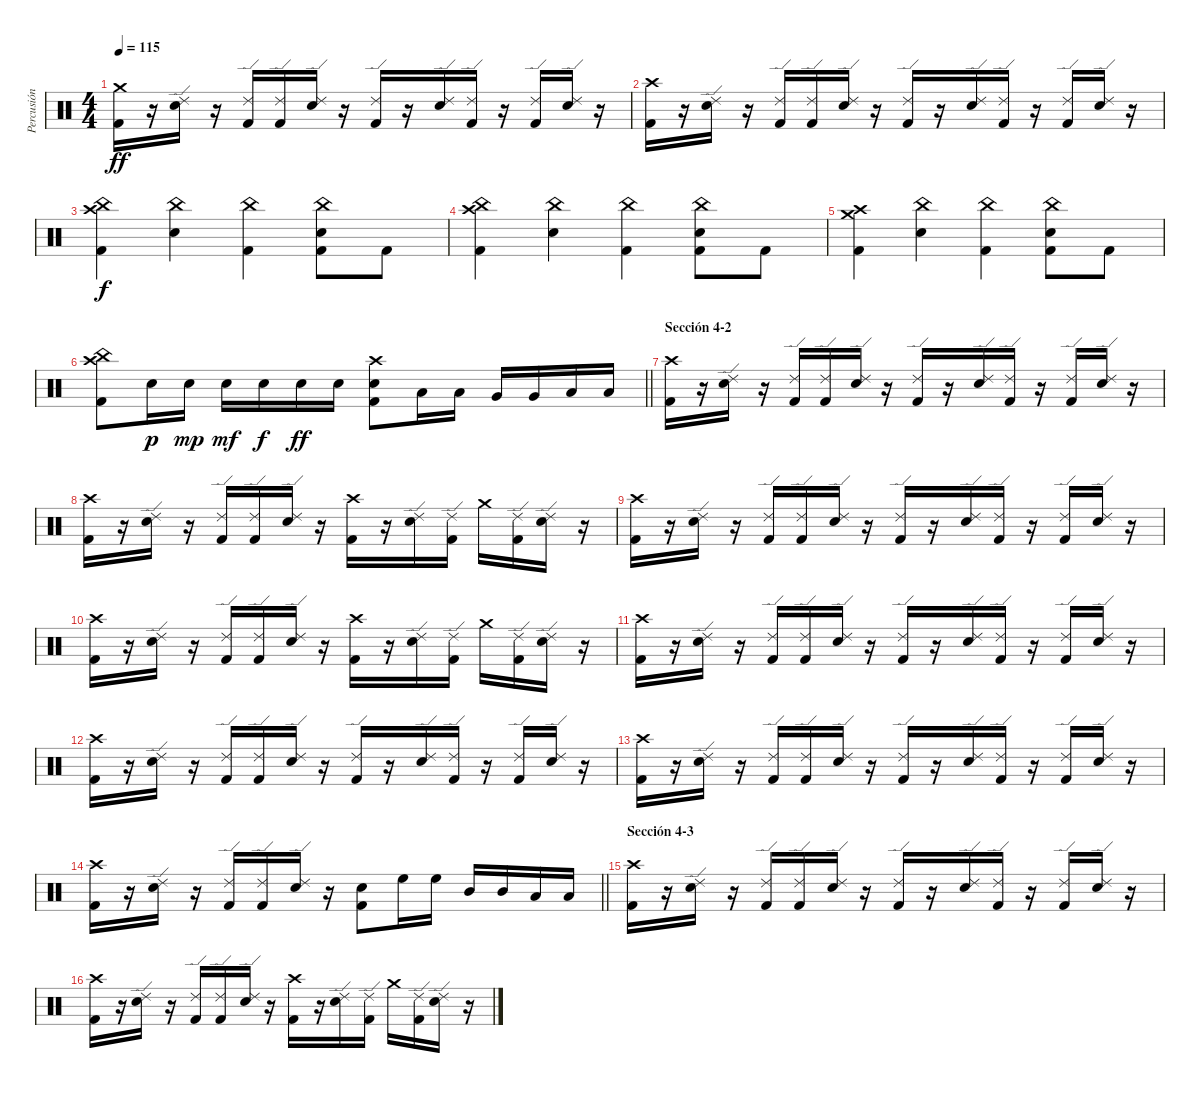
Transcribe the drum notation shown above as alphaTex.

\track ("Percusión" "Percusión") {instrument percussion}
\staff {score}
\articulation defaults
\ts (4 4)
\tempo 115
\clef neutral
\ks c
("Crash medium (hit)" "Kick (hit) 2").16{dy ff} r.16 ("Ride (edge) 2" "Snare (hit) 2").16 r.16 ("Ride (edge) 2" "Kick (hit) 2").16 ("Ride (edge) 2" "Kick (hit) 2").16 ("Ride (edge) 2" "Snare (hit) 2").16 r.16 ("Ride (edge) 2" "Kick (hit) 2").16 r.16 ("Ride (edge) 2" "Snare (hit) 2").16 ("Ride (edge) 2" "Kick (hit) 2").16 r.16 ("Ride (edge) 2" "Kick (hit) 2").16 ("Ride (edge) 2" "Snare (hit) 2").16 r.16 |
("Crash high (hit)" "Kick (hit) 2").16 r.16 ("Ride (edge) 2" "Snare (hit) 2").16 r.16 ("Ride (edge) 2" "Kick (hit) 2").16 ("Ride (edge) 2" "Kick (hit) 2").16 ("Ride (edge) 2" "Snare (hit) 2").16 r.16 ("Ride (edge) 2" "Kick (hit) 2").16 r.16 ("Ride (edge) 2" "Snare (hit) 2").16 ("Ride (edge) 2" "Kick (hit) 2").16 r.16 ("Ride (edge) 2" "Kick (hit) 2").16 ("Ride (edge) 2" "Snare (hit) 2").16 r.16 |
("China (hit)" "Crash high (hit)" "Kick (hit) 2").4{dy f} ("China (hit)" "Snare (hit) 2").4 ("China (hit)" "Kick (hit) 2").4 ("China (hit)" "Snare (hit) 2" "Kick (hit) 2").8 "Kick (hit) 2".8 |
("China (hit)" "Crash high (hit)" "Kick (hit) 2").4 ("China (hit)" "Snare (hit) 2").4 ("China (hit)" "Kick (hit) 2").4 ("China (hit)" "Snare (hit) 2" "Kick (hit) 2").8 "Kick (hit) 2".8 |
("Crash medium (hit)" "Crash high (hit)" "Kick (hit) 2").4 ("China (hit)" "Snare (hit) 2").4 ("China (hit)" "Kick (hit) 2").4 ("China (hit)" "Snare (hit) 2" "Kick (hit) 2").8 "Kick (hit) 2".8 |
\barLineRight lightlight
("China (hit)" "Crash high (hit)" "Kick (hit) 2").8 "Snare (hit) 2".16{dy p} "Snare (hit) 2".16{dy mp} "Snare (hit) 2".16{dy mf} "Snare (hit) 2".16{dy f} "Snare (hit) 2".16{dy ff} "Snare (hit) 2".16 ("Crash high (hit)" "Snare (hit) 2" "Kick (hit) 2").8 "Low Tom (hit)".16 "Low Tom (hit)".16 "Very Low Tom (hit)".16 "Very Low Tom (hit)".16 "Low Floor Tom (hit)".16 "Low Floor Tom (hit)".16 |
\section ("" "Sección 4-2")
("Crash high (hit)" "Kick (hit) 2").16 r.16 ("Ride (edge) 2" "Snare (hit) 2").16 r.16 ("Ride (edge) 2" "Kick (hit) 2").16 ("Ride (edge) 2" "Kick (hit) 2").16 ("Ride (edge) 2" "Snare (hit) 2").16 r.16 ("Ride (edge) 2" "Kick (hit) 2").16 r.16 ("Ride (edge) 2" "Snare (hit) 2").16 ("Ride (edge) 2" "Kick (hit) 2").16 r.16 ("Ride (edge) 2" "Kick (hit) 2").16 ("Ride (edge) 2" "Snare (hit) 2").16 r.16 |
("Crash high (hit)" "Kick (hit) 2").16 r.16 ("Ride (edge) 2" "Snare (hit) 2").16 r.16 ("Ride (edge) 2" "Kick (hit) 2").16 ("Ride (edge) 2" "Kick (hit) 2").16 ("Ride (edge) 2" "Snare (hit) 2").16 r.16 ("Crash high (hit)" "Kick (hit) 2").16 r.16 ("Ride (edge) 2" "Snare (hit) 2").16 ("Ride (edge) 2" "Kick (hit) 2").16 "Crash medium (hit)".16 ("Ride (edge) 2" "Kick (hit) 2").16 ("Ride (edge) 2" "Snare (hit) 2").16 r.16 |
("Crash high (hit)" "Kick (hit) 2").16 r.16 ("Ride (edge) 2" "Snare (hit) 2").16 r.16 ("Ride (edge) 2" "Kick (hit) 2").16 ("Ride (edge) 2" "Kick (hit) 2").16 ("Ride (edge) 2" "Snare (hit) 2").16 r.16 ("Ride (edge) 2" "Kick (hit) 2").16 r.16 ("Ride (edge) 2" "Snare (hit) 2").16 ("Ride (edge) 2" "Kick (hit) 2").16 r.16 ("Ride (edge) 2" "Kick (hit) 2").16 ("Ride (edge) 2" "Snare (hit) 2").16 r.16 |
("Crash high (hit)" "Kick (hit) 2").16 r.16 ("Ride (edge) 2" "Snare (hit) 2").16 r.16 ("Ride (edge) 2" "Kick (hit) 2").16 ("Ride (edge) 2" "Kick (hit) 2").16 ("Ride (edge) 2" "Snare (hit) 2").16 r.16 ("Crash high (hit)" "Kick (hit) 2").16 r.16 ("Ride (edge) 2" "Snare (hit) 2").16 ("Ride (edge) 2" "Kick (hit) 2").16 "Crash medium (hit)".16 ("Ride (edge) 2" "Kick (hit) 2").16 ("Ride (edge) 2" "Snare (hit) 2").16 r.16 |
("Crash high (hit)" "Kick (hit) 2").16 r.16 ("Ride (edge) 2" "Snare (hit) 2").16 r.16 ("Ride (edge) 2" "Kick (hit) 2").16 ("Ride (edge) 2" "Kick (hit) 2").16 ("Ride (edge) 2" "Snare (hit) 2").16 r.16 ("Ride (edge) 2" "Kick (hit) 2").16 r.16 ("Ride (edge) 2" "Snare (hit) 2").16 ("Ride (edge) 2" "Kick (hit) 2").16 r.16 ("Ride (edge) 2" "Kick (hit) 2").16 ("Ride (edge) 2" "Snare (hit) 2").16 r.16 |
("Crash high (hit)" "Kick (hit) 2").16 r.16 ("Ride (edge) 2" "Snare (hit) 2").16 r.16 ("Ride (edge) 2" "Kick (hit) 2").16 ("Ride (edge) 2" "Kick (hit) 2").16 ("Ride (edge) 2" "Snare (hit) 2").16 r.16 ("Ride (edge) 2" "Kick (hit) 2").16 r.16 ("Ride (edge) 2" "Snare (hit) 2").16 ("Ride (edge) 2" "Kick (hit) 2").16 r.16 ("Ride (edge) 2" "Kick (hit) 2").16 ("Ride (edge) 2" "Snare (hit) 2").16 r.16 |
("Crash high (hit)" "Kick (hit) 2").16 r.16 ("Ride (edge) 2" "Snare (hit) 2").16 r.16 ("Ride (edge) 2" "Kick (hit) 2").16 ("Ride (edge) 2" "Kick (hit) 2").16 ("Ride (edge) 2" "Snare (hit) 2").16 r.16 ("Ride (edge) 2" "Kick (hit) 2").16 r.16 ("Ride (edge) 2" "Snare (hit) 2").16 ("Ride (edge) 2" "Kick (hit) 2").16 r.16 ("Ride (edge) 2" "Kick (hit) 2").16 ("Ride (edge) 2" "Snare (hit) 2").16 r.16 |
\barLineRight lightlight
("Crash high (hit)" "Kick (hit) 2").16 r.16 ("Ride (edge) 2" "Snare (hit) 2").16 r.16 ("Ride (edge) 2" "Kick (hit) 2").16 ("Ride (edge) 2" "Kick (hit) 2").16 ("Ride (edge) 2" "Snare (hit) 2").16 r.16 ("Snare (hit) 2" "Kick (hit) 2").8 "High Floor Tom (hit)".16 "High Floor Tom (hit)".16 "Mid Tom (hit)".16 "Mid Tom (hit)".16 "Low Tom (hit)".16 "Low Tom (hit)".16 |
\section ("" "Sección 4-3")
("Crash high (hit)" "Kick (hit) 2").16 r.16 ("Ride (edge) 2" "Snare (hit) 2").16 r.16 ("Ride (edge) 2" "Kick (hit) 2").16 ("Ride (edge) 2" "Kick (hit) 2").16 ("Ride (edge) 2" "Snare (hit) 2").16 r.16 ("Ride (edge) 2" "Kick (hit) 2").16 r.16 ("Ride (edge) 2" "Snare (hit) 2").16 ("Ride (edge) 2" "Kick (hit) 2").16 r.16 ("Ride (edge) 2" "Kick (hit) 2").16 ("Ride (edge) 2" "Snare (hit) 2").16 r.16 |
("Crash high (hit)" "Kick (hit) 2").16 r.16 ("Ride (edge) 2" "Snare (hit) 2").16 r.16 ("Ride (edge) 2" "Kick (hit) 2").16 ("Ride (edge) 2" "Kick (hit) 2").16 ("Ride (edge) 2" "Snare (hit) 2").16 r.16 ("Crash high (hit)" "Kick (hit) 2").16 r.16 ("Ride (edge) 2" "Snare (hit) 2").16 ("Ride (edge) 2" "Kick (hit) 2").16 "Crash medium (hit)".16 ("Ride (edge) 2" "Kick (hit) 2").16 ("Ride (edge) 2" "Snare (hit) 2").16 r.16
